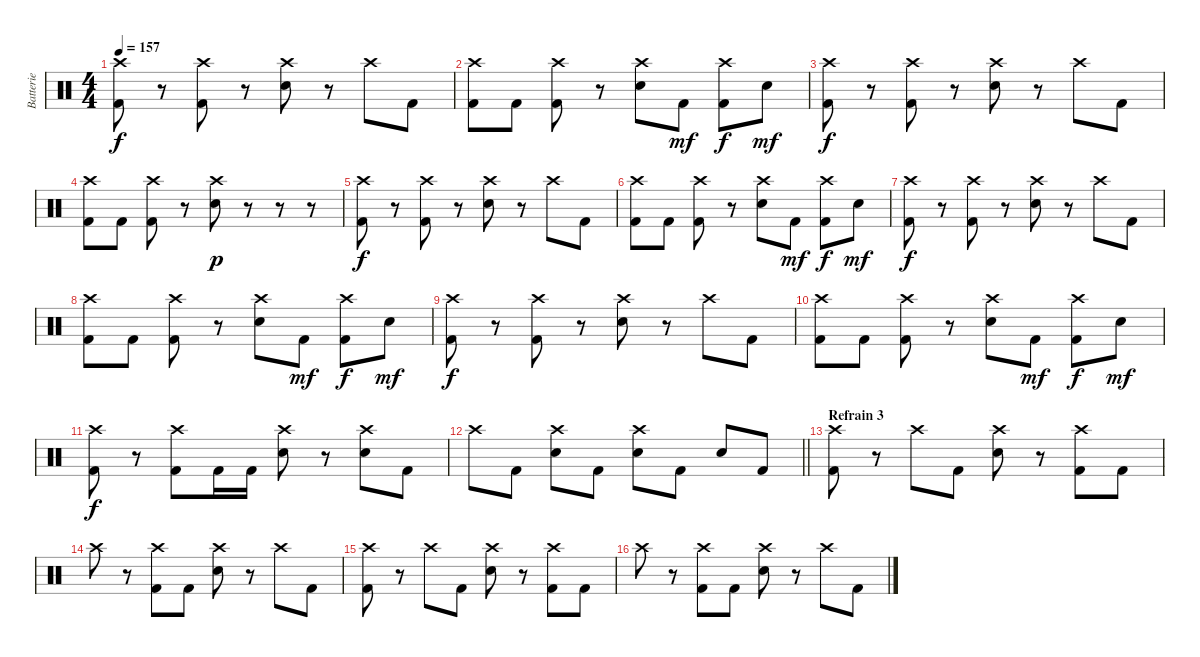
\track ("Batterie" "Batterie") {instrument percussion}
\staff {score}
\articulation defaults
\ts (4 4)
\tempo 157
\clef neutral
\ks c
("Kick (hit) 2" "Crash high (hit)").8{dy f} r.8 ("Kick (hit) 2" "Crash high (hit)").8 r.8 ("Electric Snare (hit)" "Crash high (hit)").8 r.8 "Crash high (hit)".8 "Kick (hit) 2".8 |
("Kick (hit) 2" "Crash high (hit)").8 "Kick (hit) 2".8 ("Kick (hit) 2" "Crash high (hit)").8 r.8 ("Electric Snare (hit)" "Crash high (hit)").8 "Kick (hit) 2".8{dy mf} ("Kick (hit) 2" "Crash high (hit)").8{dy f} "Electric Snare (hit)".8{dy mf} |
("Kick (hit) 2" "Crash high (hit)").8{dy f} r.8 ("Kick (hit) 2" "Crash high (hit)").8 r.8 ("Electric Snare (hit)" "Crash high (hit)").8 r.8 "Crash high (hit)".8 "Kick (hit) 2".8 |
("Kick (hit) 2" "Crash high (hit)").8 "Kick (hit) 2".8 ("Kick (hit) 2" "Crash high (hit)").8 r.8 ("Electric Snare (hit)" "Crash high (hit)").8{dy p} r.8 r.8 r.8 |
("Kick (hit) 2" "Crash high (hit)").8{dy f} r.8 ("Kick (hit) 2" "Crash high (hit)").8 r.8 ("Electric Snare (hit)" "Crash high (hit)").8 r.8 "Crash high (hit)".8 "Kick (hit) 2".8 |
("Kick (hit) 2" "Crash high (hit)").8 "Kick (hit) 2".8 ("Kick (hit) 2" "Crash high (hit)").8 r.8 ("Electric Snare (hit)" "Crash high (hit)").8 "Kick (hit) 2".8{dy mf} ("Kick (hit) 2" "Crash high (hit)").8{dy f} "Electric Snare (hit)".8{dy mf} |
("Kick (hit) 2" "Crash high (hit)").8{dy f} r.8 ("Kick (hit) 2" "Crash high (hit)").8 r.8 ("Electric Snare (hit)" "Crash high (hit)").8 r.8 "Crash high (hit)".8 "Kick (hit) 2".8 |
("Kick (hit) 2" "Crash high (hit)").8 "Kick (hit) 2".8 ("Kick (hit) 2" "Crash high (hit)").8 r.8 ("Electric Snare (hit)" "Crash high (hit)").8 "Kick (hit) 2".8{dy mf} ("Kick (hit) 2" "Crash high (hit)").8{dy f} "Electric Snare (hit)".8{dy mf} |
("Kick (hit) 2" "Crash high (hit)").8{dy f} r.8 ("Kick (hit) 2" "Crash high (hit)").8 r.8 ("Electric Snare (hit)" "Crash high (hit)").8 r.8 "Crash high (hit)".8 "Kick (hit) 2".8 |
("Kick (hit) 2" "Crash high (hit)").8 "Kick (hit) 2".8 ("Kick (hit) 2" "Crash high (hit)").8 r.8 ("Electric Snare (hit)" "Crash high (hit)").8 "Kick (hit) 2".8{dy mf} ("Kick (hit) 2" "Crash high (hit)").8{dy f} "Electric Snare (hit)".8{dy mf} |
("Kick (hit) 2" "Crash high (hit)").8{dy f} r.8 ("Kick (hit) 2" "Crash high (hit)").8 "Kick (hit) 2".16 "Kick (hit) 2".16 ("Electric Snare (hit)" "Crash high (hit)").8 r.8 ("Electric Snare (hit)" "Crash high (hit)").8 "Kick (hit) 2".8 |
\barLineRight lightlight "Crash high (hit)".8 "Kick (hit) 2".8
("Electric Snare (hit)" "Crash high (hit)").8 "Kick (hit) 2".8 ("Electric Snare (hit)" "Crash high (hit)").8 "Kick (hit) 2".8 "Electric Snare (hit)".8 "Kick (hit) 2".8 |
\section ("" "Refrain 3")
("Kick (hit) 2" "Crash high (hit)").8 r.8 "Crash high (hit)".8 "Kick (hit) 2".8 ("Electric Snare (hit)" "Crash high (hit)").8 r.8 ("Kick (hit) 2" "Crash high (hit)").8 "Kick (hit) 2".8 |
"Crash high (hit)".8 r.8 ("Kick (hit) 2" "Crash high (hit)").8 "Kick (hit) 2".8 ("Electric Snare (hit)" "Crash high (hit)").8 r.8 "Crash high (hit)".8 "Kick (hit) 2".8 |
("Kick (hit) 2" "Crash high (hit)").8 r.8 "Crash high (hit)".8 "Kick (hit) 2".8 ("Electric Snare (hit)" "Crash high (hit)").8 r.8 ("Kick (hit) 2" "Crash high (hit)").8 "Kick (hit) 2".8 |
"Crash high (hit)".8 r.8 ("Kick (hit) 2" "Crash high (hit)").8 "Kick (hit) 2".8 ("Electric Snare (hit)" "Crash high (hit)").8 r.8 "Crash high (hit)".8 "Kick (hit) 2".8
